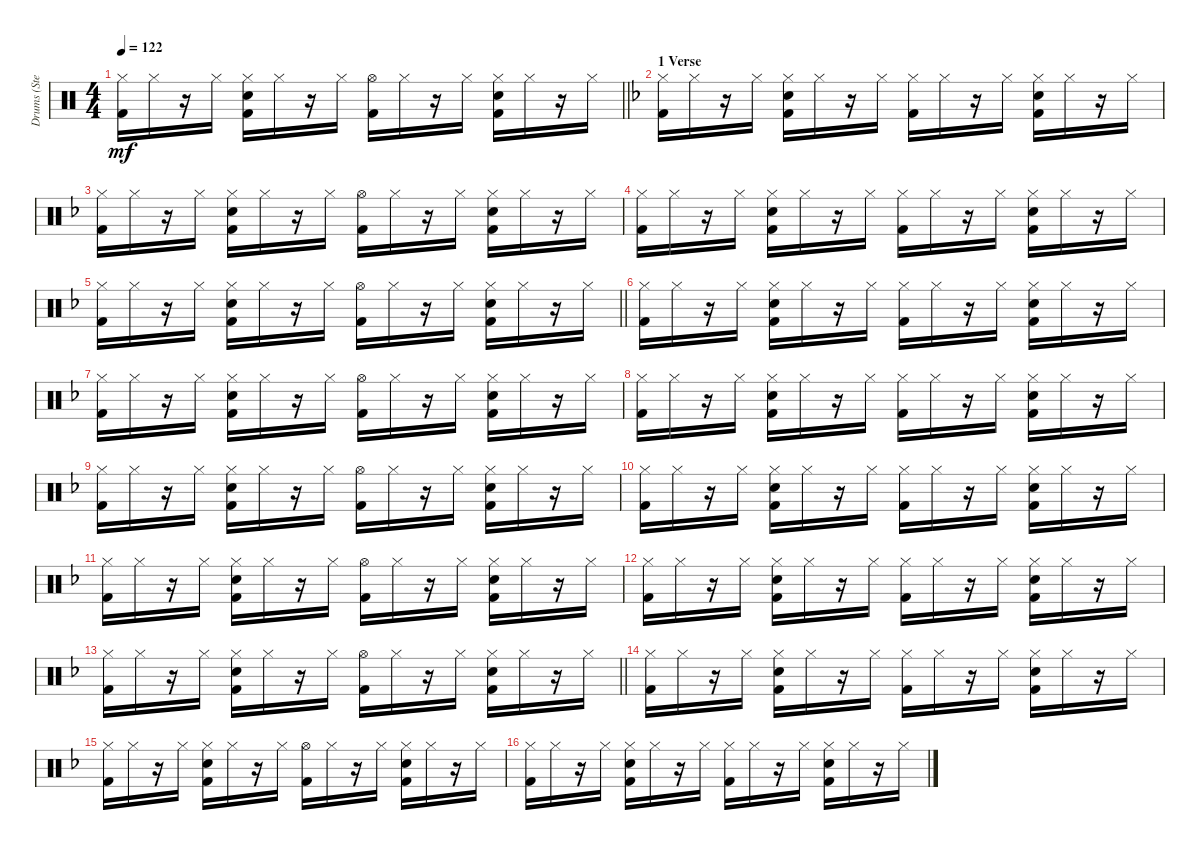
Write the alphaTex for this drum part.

\track ("Drums (Stephen Morris)" "Drums (Ste") {instrument percussion}
\staff {score}
\articulation defaults
\ts (4 4)
\tempo 122
\clef neutral
\barLineRight lightlight
\ks c
("Kick (hit) 2" "Hi-Hat (closed)").16{dy mf} "Hi-Hat (closed)".16 r.16 "Hi-Hat (closed)".16 ("Hi-Hat (closed)" "Snare (hit) 2" "Kick (hit) 2").16 "Hi-Hat (closed)".16 r.16 "Hi-Hat (closed)".16 ("Hi-Hat (open)" "Kick (hit) 2").16 "Hi-Hat (closed)".16 r.16 "Hi-Hat (closed)".16 ("Hi-Hat (closed)" "Snare (hit) 2" "Kick (hit) 2").16 "Hi-Hat (closed)".16 r.16 "Hi-Hat (closed)".16 |
\section ("" "1 Verse")
\ks f
("Kick (hit) 2" "Hi-Hat (closed)").16 "Hi-Hat (closed)".16 r.16 "Hi-Hat (closed)".16 ("Kick (hit) 2" "Snare (hit) 2" "Hi-Hat (closed)").16 "Hi-Hat (closed)".16 r.16 "Hi-Hat (closed)".16 ("Hi-Hat (closed)" "Kick (hit) 2").16 "Hi-Hat (closed)".16 r.16 "Hi-Hat (closed)".16 ("Hi-Hat (closed)" "Snare (hit) 2" "Kick (hit) 2").16 "Hi-Hat (closed)".16 r.16 "Hi-Hat (closed)".16 |
("Kick (hit) 2" "Hi-Hat (closed)").16 "Hi-Hat (closed)".16 r.16 "Hi-Hat (closed)".16 ("Hi-Hat (closed)" "Snare (hit) 2" "Kick (hit) 2").16 "Hi-Hat (closed)".16 r.16 "Hi-Hat (closed)".16 ("Hi-Hat (open)" "Kick (hit) 2").16 "Hi-Hat (closed)".16 r.16 "Hi-Hat (closed)".16 ("Hi-Hat (closed)" "Snare (hit) 2" "Kick (hit) 2").16 "Hi-Hat (closed)".16 r.16 "Hi-Hat (closed)".16 |
("Kick (hit) 2" "Hi-Hat (closed)").16 "Hi-Hat (closed)".16 r.16 "Hi-Hat (closed)".16 ("Hi-Hat (closed)" "Snare (hit) 2" "Kick (hit) 2").16 "Hi-Hat (closed)".16 r.16 "Hi-Hat (closed)".16 ("Kick (hit) 2" "Hi-Hat (closed)").16 "Hi-Hat (closed)".16 r.16 "Hi-Hat (closed)".16 ("Hi-Hat (closed)" "Snare (hit) 2" "Kick (hit) 2").16 "Hi-Hat (closed)".16 r.16 "Hi-Hat (closed)".16 |
\barLineRight lightlight
("Kick (hit) 2" "Hi-Hat (closed)").16 "Hi-Hat (closed)".16 r.16 "Hi-Hat (closed)".16 ("Kick (hit) 2" "Snare (hit) 2" "Hi-Hat (closed)").16 "Hi-Hat (closed)".16 r.16 "Hi-Hat (closed)".16 ("Kick (hit) 2" "Hi-Hat (open)").16 "Hi-Hat (closed)".16 r.16 "Hi-Hat (closed)".16 ("Hi-Hat (closed)" "Snare (hit) 2" "Kick (hit) 2").16 "Hi-Hat (closed)".16 r.16 "Hi-Hat (closed)".16 |
("Kick (hit) 2" "Hi-Hat (closed)").16 "Hi-Hat (closed)".16 r.16 "Hi-Hat (closed)".16 ("Kick (hit) 2" "Snare (hit) 2" "Hi-Hat (closed)").16 "Hi-Hat (closed)".16 r.16 "Hi-Hat (closed)".16 ("Kick (hit) 2" "Hi-Hat (closed)").16 "Hi-Hat (closed)".16 r.16 "Hi-Hat (closed)".16 ("Hi-Hat (closed)" "Snare (hit) 2" "Kick (hit) 2").16 "Hi-Hat (closed)".16 r.16 "Hi-Hat (closed)".16 |
("Hi-Hat (closed)" "Kick (hit) 2").16 "Hi-Hat (closed)".16 r.16 "Hi-Hat (closed)".16 ("Hi-Hat (closed)" "Snare (hit) 2" "Kick (hit) 2").16 "Hi-Hat (closed)".16 r.16 "Hi-Hat (closed)".16 ("Kick (hit) 2" "Hi-Hat (open)").16 "Hi-Hat (closed)".16 r.16 "Hi-Hat (closed)".16 ("Kick (hit) 2" "Snare (hit) 2" "Hi-Hat (closed)").16 "Hi-Hat (closed)".16 r.16 "Hi-Hat (closed)".16 |
("Hi-Hat (closed)" "Kick (hit) 2").16 "Hi-Hat (closed)".16 r.16 "Hi-Hat (closed)".16 ("Hi-Hat (closed)" "Snare (hit) 2" "Kick (hit) 2").16 "Hi-Hat (closed)".16 r.16 "Hi-Hat (closed)".16 ("Kick (hit) 2" "Hi-Hat (closed)").16 "Hi-Hat (closed)".16 r.16 "Hi-Hat (closed)".16 ("Hi-Hat (closed)" "Kick (hit) 2" "Snare (hit) 2").16 "Hi-Hat (closed)".16 r.16 "Hi-Hat (closed)".16 |
("Hi-Hat (closed)" "Kick (hit) 2").16 "Hi-Hat (closed)".16 r.16 "Hi-Hat (closed)".16 ("Hi-Hat (closed)" "Snare (hit) 2" "Kick (hit) 2").16 "Hi-Hat (closed)".16 r.16 "Hi-Hat (closed)".16 ("Kick (hit) 2" "Hi-Hat (open)").16 "Hi-Hat (closed)".16 r.16 "Hi-Hat (closed)".16 ("Hi-Hat (closed)" "Snare (hit) 2" "Kick (hit) 2").16 "Hi-Hat (closed)".16 r.16 "Hi-Hat (closed)".16 |
("Kick (hit) 2" "Hi-Hat (closed)").16 "Hi-Hat (closed)".16 r.16 "Hi-Hat (closed)".16 ("Hi-Hat (closed)" "Kick (hit) 2" "Snare (hit) 2").16 "Hi-Hat (closed)".16 r.16 "Hi-Hat (closed)".16 ("Kick (hit) 2" "Hi-Hat (closed)").16 "Hi-Hat (closed)".16 r.16 "Hi-Hat (closed)".16 ("Kick (hit) 2" "Snare (hit) 2" "Hi-Hat (closed)").16 "Hi-Hat (closed)".16 r.16 "Hi-Hat (closed)".16 |
("Kick (hit) 2" "Hi-Hat (closed)").16 "Hi-Hat (closed)".16 r.16 "Hi-Hat (closed)".16 ("Hi-Hat (closed)" "Snare (hit) 2" "Kick (hit) 2").16 "Hi-Hat (closed)".16 r.16 "Hi-Hat (closed)".16 ("Kick (hit) 2" "Hi-Hat (open)").16 "Hi-Hat (closed)".16 r.16 "Hi-Hat (closed)".16 ("Snare (hit) 2" "Kick (hit) 2" "Hi-Hat (closed)").16 "Hi-Hat (closed)".16 r.16 "Hi-Hat (closed)".16 |
("Kick (hit) 2" "Hi-Hat (closed)").16 "Hi-Hat (closed)".16 r.16 "Hi-Hat (closed)".16 ("Hi-Hat (closed)" "Snare (hit) 2" "Kick (hit) 2").16 "Hi-Hat (closed)".16 r.16 "Hi-Hat (closed)".16 ("Hi-Hat (closed)" "Kick (hit) 2").16 "Hi-Hat (closed)".16 r.16 "Hi-Hat (closed)".16 ("Hi-Hat (closed)" "Kick (hit) 2" "Snare (hit) 2").16 "Hi-Hat (closed)".16 r.16 "Hi-Hat (closed)".16 |
\barLineRight lightlight
("Kick (hit) 2" "Hi-Hat (closed)").16 "Hi-Hat (closed)".16 r.16 "Hi-Hat (closed)".16 ("Kick (hit) 2" "Snare (hit) 2" "Hi-Hat (closed)").16 "Hi-Hat (closed)".16 r.16 "Hi-Hat (closed)".16 ("Hi-Hat (open)" "Kick (hit) 2").16 "Hi-Hat (closed)".16 r.16 "Hi-Hat (closed)".16 ("Hi-Hat (closed)" "Snare (hit) 2" "Kick (hit) 2").16 "Hi-Hat (closed)".16 r.16 "Hi-Hat (closed)".16 |
("Kick (hit) 2" "Hi-Hat (closed)").16 "Hi-Hat (closed)".16 r.16 "Hi-Hat (closed)".16 ("Hi-Hat (closed)" "Kick (hit) 2" "Snare (hit) 2").16 "Hi-Hat (closed)".16 r.16 "Hi-Hat (closed)".16 ("Hi-Hat (closed)" "Kick (hit) 2").16 "Hi-Hat (closed)".16 r.16 "Hi-Hat (closed)".16 ("Hi-Hat (closed)" "Snare (hit) 2" "Kick (hit) 2").16 "Hi-Hat (closed)".16 r.16 "Hi-Hat (closed)".16 |
("Kick (hit) 2" "Hi-Hat (closed)").16 "Hi-Hat (closed)".16 r.16 "Hi-Hat (closed)".16 ("Hi-Hat (closed)" "Kick (hit) 2" "Snare (hit) 2").16 "Hi-Hat (closed)".16 r.16 "Hi-Hat (closed)".16 ("Kick (hit) 2" "Hi-Hat (open)").16 "Hi-Hat (closed)".16 r.16 "Hi-Hat (closed)".16 ("Hi-Hat (closed)" "Snare (hit) 2" "Kick (hit) 2").16 "Hi-Hat (closed)".16 r.16 "Hi-Hat (closed)".16 |
("Kick (hit) 2" "Hi-Hat (closed)").16 "Hi-Hat (closed)".16 r.16 "Hi-Hat (closed)".16 ("Kick (hit) 2" "Snare (hit) 2" "Hi-Hat (closed)").16 "Hi-Hat (closed)".16 r.16 "Hi-Hat (closed)".16 ("Kick (hit) 2" "Hi-Hat (closed)").16 "Hi-Hat (closed)".16 r.16 "Hi-Hat (closed)".16 ("Hi-Hat (closed)" "Snare (hit) 2" "Kick (hit) 2").16 "Hi-Hat (closed)".16 r.16 "Hi-Hat (closed)".16
